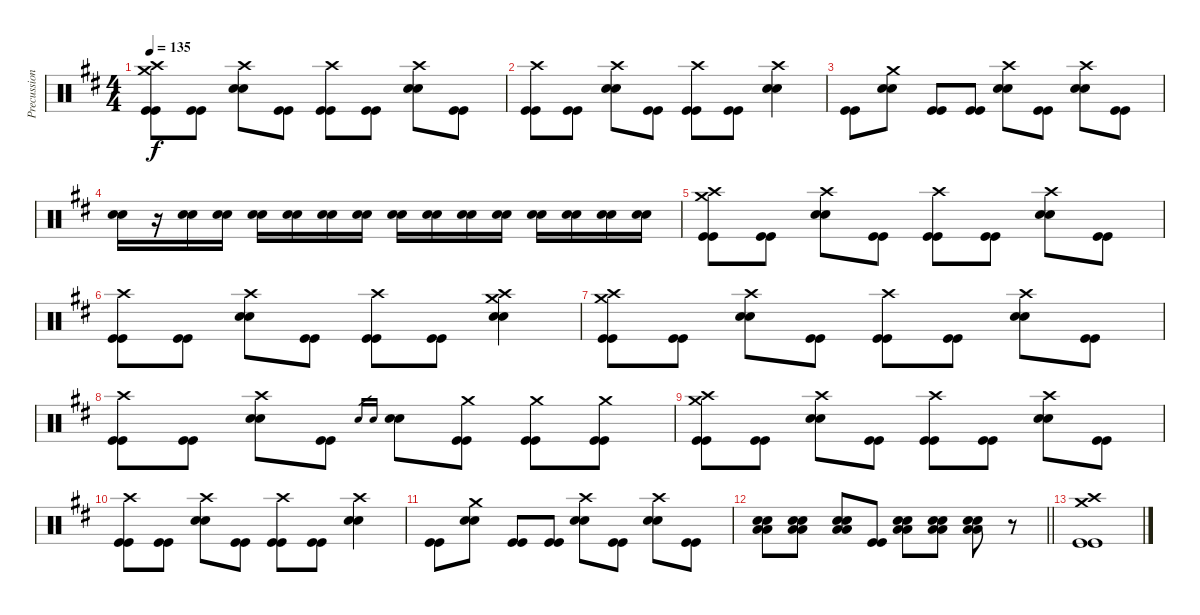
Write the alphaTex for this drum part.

\track ("Precussion" "Precussion") {instrument percussion}
\staff {score}
\articulation defaults
\ts (4 4)
\tempo 135
\clef neutral
\ks d
("Crash high (hit)" "Crash medium (hit)" "Kick (hit)" "Kick (hit)").8{dy f} ("Kick (hit)" "Kick (hit)").8 ("Crash high (hit)" "Electric Snare (hit)" "Electric Snare (hit)").8 ("Kick (hit)" "Kick (hit)").8 ("Crash high (hit)" "Kick (hit)" "Kick (hit)").8 ("Kick (hit)" "Kick (hit)").8 ("Crash high (hit)" "Electric Snare (hit)" "Electric Snare (hit)").8 ("Kick (hit)" "Kick (hit)").8 |
("Crash high (hit)" "Kick (hit)" "Kick (hit)").8 ("Kick (hit)" "Kick (hit)").8 ("Crash high (hit)" "Electric Snare (hit)" "Electric Snare (hit)").8 ("Kick (hit)" "Kick (hit)").8 ("Crash high (hit)" "Kick (hit)" "Kick (hit)").8 ("Kick (hit)" "Kick (hit)").8 ("Crash high (hit)" "Electric Snare (hit)" "Electric Snare (hit)").4 |
("Kick (hit)" "Kick (hit)").8 ("Crash medium (hit)" "Electric Snare (hit)" "Electric Snare (hit)").8 ("Kick (hit)" "Kick (hit)").8 ("Kick (hit)" "Kick (hit)").8 ("Crash high (hit)" "Electric Snare (hit)" "Electric Snare (hit)").8 ("Kick (hit)" "Kick (hit)").8 ("Crash high (hit)" "Electric Snare (hit)" "Electric Snare (hit)").8 ("Kick (hit)" "Kick (hit)").8 |
("Electric Snare (hit)" "Electric Snare (hit)").16 r.16 ("Electric Snare (hit)" "Electric Snare (hit)").16 ("Electric Snare (hit)" "Electric Snare (hit)").16 ("Electric Snare (hit)" "Electric Snare (hit)").16 ("Electric Snare (hit)" "Electric Snare (hit)").16 ("Electric Snare (hit)" "Electric Snare (hit)").16 ("Electric Snare (hit)" "Electric Snare (hit)").16 ("Electric Snare (hit)" "Electric Snare (hit)").16 ("Electric Snare (hit)" "Electric Snare (hit)").16 ("Electric Snare (hit)" "Electric Snare (hit)").16 ("Electric Snare (hit)" "Electric Snare (hit)").16 ("Electric Snare (hit)" "Electric Snare (hit)").16 ("Electric Snare (hit)" "Electric Snare (hit)").16 ("Electric Snare (hit)" "Electric Snare (hit)").16 ("Electric Snare (hit)" "Electric Snare (hit)").16 |
("Crash high (hit)" "Crash medium (hit)" "Kick (hit)" "Kick (hit)").8 ("Kick (hit)" "Kick (hit)").8 ("Crash high (hit)" "Electric Snare (hit)" "Electric Snare (hit)").8 ("Kick (hit)" "Kick (hit)").8 ("Crash high (hit)" "Kick (hit)" "Kick (hit)").8 ("Kick (hit)" "Kick (hit)").8 ("Crash high (hit)" "Electric Snare (hit)" "Electric Snare (hit)").8 ("Kick (hit)" "Kick (hit)").8 |
("Crash high (hit)" "Kick (hit)" "Kick (hit)").8 ("Kick (hit)" "Kick (hit)").8 ("Crash high (hit)" "Electric Snare (hit)" "Electric Snare (hit)").8 ("Kick (hit)" "Kick (hit)").8 ("Crash high (hit)" "Kick (hit)" "Kick (hit)").8 ("Kick (hit)" "Kick (hit)").8 ("Crash high (hit)" "Crash medium (hit)" "Electric Snare (hit)" "Electric Snare (hit)").4 |
("Crash high (hit)" "Crash medium (hit)" "Kick (hit)" "Kick (hit)").8 ("Kick (hit)" "Kick (hit)").8 ("Crash high (hit)" "Electric Snare (hit)" "Electric Snare (hit)").8 ("Kick (hit)" "Kick (hit)").8 ("Crash high (hit)" "Kick (hit)" "Kick (hit)").8 ("Kick (hit)" "Kick (hit)").8 ("Crash high (hit)" "Electric Snare (hit)" "Electric Snare (hit)").8 ("Kick (hit)" "Kick (hit)").8 |
("Crash high (hit)" "Kick (hit)" "Kick (hit)").8 ("Kick (hit)" "Kick (hit)").8 ("Crash high (hit)" "Electric Snare (hit)" "Electric Snare (hit)").8 ("Kick (hit)" "Kick (hit)").8 "Electric Snare (hit)".16{gr} "Electric Snare (hit)".16{gr} ("Electric Snare (hit)" "Electric Snare (hit)").8 ("Crash medium (hit)" "Kick (hit)" "Kick (hit)").8 ("Crash medium (hit)" "Kick (hit)" "Kick (hit)").8 ("Crash medium (hit)" "Kick (hit)" "Kick (hit)").8 |
("Crash high (hit)" "Crash medium (hit)" "Kick (hit)" "Kick (hit)").8 ("Kick (hit)" "Kick (hit)").8 ("Crash high (hit)" "Electric Snare (hit)" "Electric Snare (hit)").8 ("Kick (hit)" "Kick (hit)").8 ("Crash high (hit)" "Kick (hit)" "Kick (hit)").8 ("Kick (hit)" "Kick (hit)").8 ("Crash high (hit)" "Electric Snare (hit)" "Electric Snare (hit)").8 ("Kick (hit)" "Kick (hit)").8 |
("Crash high (hit)" "Kick (hit)" "Kick (hit)").8 ("Kick (hit)" "Kick (hit)").8 ("Crash high (hit)" "Electric Snare (hit)" "Electric Snare (hit)").8 ("Kick (hit)" "Kick (hit)").8 ("Crash high (hit)" "Kick (hit)" "Kick (hit)").8 ("Kick (hit)" "Kick (hit)").8 ("Crash high (hit)" "Electric Snare (hit)" "Electric Snare (hit)").4 |
("Kick (hit)" "Kick (hit)").8 ("Crash medium (hit)" "Electric Snare (hit)" "Electric Snare (hit)").8 ("Kick (hit)" "Kick (hit)").8 ("Kick (hit)" "Kick (hit)").8 ("Crash high (hit)" "Electric Snare (hit)" "Electric Snare (hit)").8 ("Kick (hit)" "Kick (hit)").8 ("Crash high (hit)" "Electric Snare (hit)" "Electric Snare (hit)").8 ("Kick (hit)" "Kick (hit)").8 |
\barLineRight lightlight
("Electric Snare (hit)" "Electric Snare (hit)" "Low Floor Tom (hit)" "Low Floor Tom (hit)").8 ("Electric Snare (hit)" "Electric Snare (hit)" "Low Floor Tom (hit)" "Low Floor Tom (hit)").8 ("Electric Snare (hit)" "Electric Snare (hit)" "Low Floor Tom (hit)" "Low Floor Tom (hit)").8 ("Kick (hit)" "Kick (hit)").8 ("Electric Snare (hit)" "Electric Snare (hit)" "Low Tom (hit)" "Low Tom (hit)").8 ("Electric Snare (hit)" "Electric Snare (hit)" "Low Tom (hit)" "Low Tom (hit)").8 ("Electric Snare (hit)" "Electric Snare (hit)" "Low Tom (hit)" "Low Tom (hit)").8 r.8 |
("Crash medium (hit)" "Crash high (hit)" "Kick (hit)" "Kick (hit)").1
